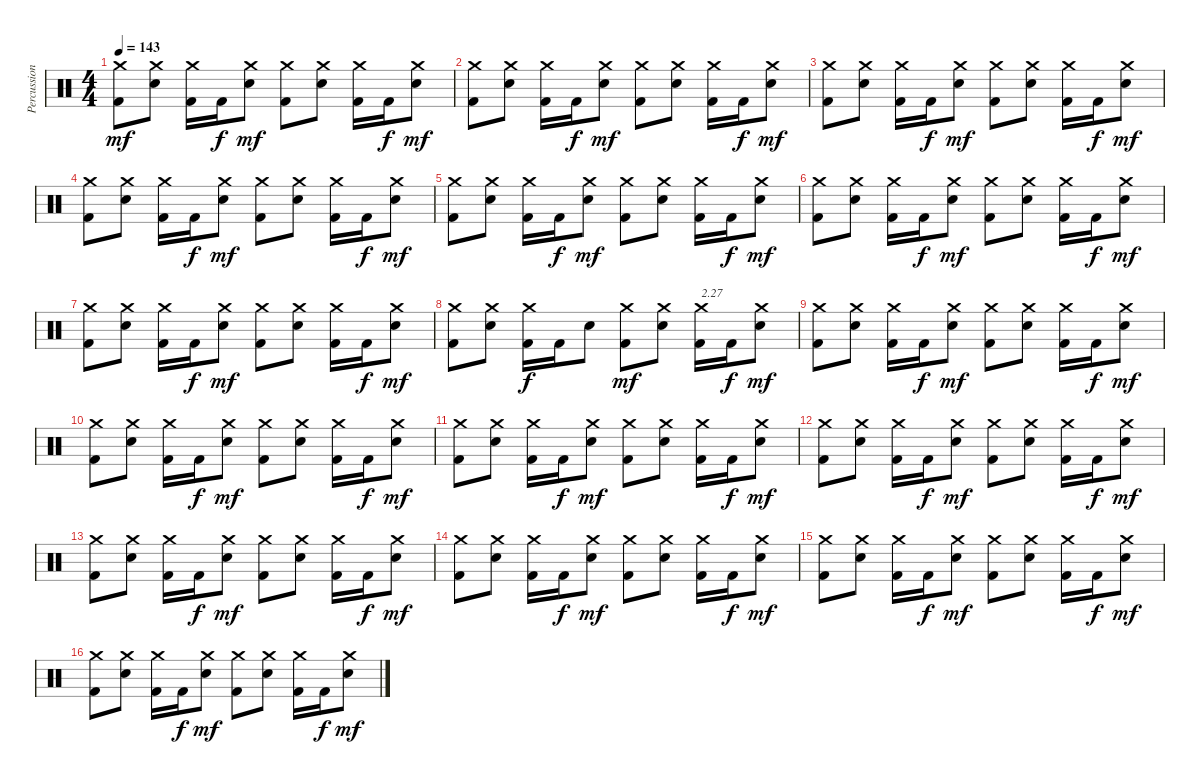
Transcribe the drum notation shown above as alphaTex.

\track ("Percussions" "Percussion") {instrument percussion}
\staff {score}
\articulation defaults
\ts (4 4)
\tempo 143
\clef neutral
\ks c
("Kick (hit) 2" "Crash medium (hit)").8{dy mf} ("Electric Snare (hit)" "Crash medium (hit)").8 ("Kick (hit) 2" "Crash medium (hit)").16 "Kick (hit) 2".16{dy f} ("Electric Snare (hit)" "Crash medium (hit)").8{dy mf} ("Kick (hit) 2" "Crash medium (hit)").8 ("Electric Snare (hit)" "Crash medium (hit)").8 ("Kick (hit) 2" "Crash medium (hit)").16 "Kick (hit) 2".16{dy f} ("Electric Snare (hit)" "Crash medium (hit)").8{dy mf} |
("Kick (hit) 2" "Crash medium (hit)").8 ("Electric Snare (hit)" "Crash medium (hit)").8 ("Kick (hit) 2" "Crash medium (hit)").16 "Kick (hit) 2".16{dy f} ("Electric Snare (hit)" "Crash medium (hit)").8{dy mf} ("Kick (hit) 2" "Crash medium (hit)").8 ("Electric Snare (hit)" "Crash medium (hit)").8 ("Kick (hit) 2" "Crash medium (hit)").16 "Kick (hit) 2".16{dy f} ("Electric Snare (hit)" "Crash medium (hit)").8{dy mf} |
("Kick (hit) 2" "Crash medium (hit)").8 ("Electric Snare (hit)" "Crash medium (hit)").8 ("Kick (hit) 2" "Crash medium (hit)").16 "Kick (hit) 2".16{dy f} ("Electric Snare (hit)" "Crash medium (hit)").8{dy mf} ("Kick (hit) 2" "Crash medium (hit)").8 ("Electric Snare (hit)" "Crash medium (hit)").8 ("Kick (hit) 2" "Crash medium (hit)").16 "Kick (hit) 2".16{dy f} ("Electric Snare (hit)" "Crash medium (hit)").8{dy mf} |
("Kick (hit) 2" "Crash medium (hit)").8 ("Electric Snare (hit)" "Crash medium (hit)").8 ("Kick (hit) 2" "Crash medium (hit)").16 "Kick (hit) 2".16{dy f} ("Electric Snare (hit)" "Crash medium (hit)").8{dy mf} ("Kick (hit) 2" "Crash medium (hit)").8 ("Electric Snare (hit)" "Crash medium (hit)").8 ("Kick (hit) 2" "Crash medium (hit)").16 "Kick (hit) 2".16{dy f} ("Electric Snare (hit)" "Crash medium (hit)").8{dy mf} |
("Kick (hit) 2" "Crash medium (hit)").8 ("Electric Snare (hit)" "Crash medium (hit)").8 ("Kick (hit) 2" "Crash medium (hit)").16 "Kick (hit) 2".16{dy f} ("Electric Snare (hit)" "Crash medium (hit)").8{dy mf} ("Kick (hit) 2" "Crash medium (hit)").8 ("Electric Snare (hit)" "Crash medium (hit)").8 ("Kick (hit) 2" "Crash medium (hit)").16 "Kick (hit) 2".16{dy f} ("Electric Snare (hit)" "Crash medium (hit)").8{dy mf} |
("Kick (hit) 2" "Crash medium (hit)").8 ("Electric Snare (hit)" "Crash medium (hit)").8 ("Kick (hit) 2" "Crash medium (hit)").16 "Kick (hit) 2".16{dy f} ("Electric Snare (hit)" "Crash medium (hit)").8{dy mf} ("Kick (hit) 2" "Crash medium (hit)").8 ("Electric Snare (hit)" "Crash medium (hit)").8 ("Kick (hit) 2" "Crash medium (hit)").16 "Kick (hit) 2".16{dy f} ("Electric Snare (hit)" "Crash medium (hit)").8{dy mf} |
("Kick (hit) 2" "Crash medium (hit)").8 ("Electric Snare (hit)" "Crash medium (hit)").8 ("Kick (hit) 2" "Crash medium (hit)").16 "Kick (hit) 2".16{dy f} ("Electric Snare (hit)" "Crash medium (hit)").8{dy mf} ("Kick (hit) 2" "Crash medium (hit)").8 ("Electric Snare (hit)" "Crash medium (hit)").8 ("Kick (hit) 2" "Crash medium (hit)").16 "Kick (hit) 2".16{dy f} ("Electric Snare (hit)" "Crash medium (hit)").8{dy mf} |
("Kick (hit) 2" "Crash medium (hit)").8 ("Electric Snare (hit)" "Crash medium (hit)").8 ("Kick (hit) 2" "Crash medium (hit)").16{dy f} "Kick (hit) 2".16 "Electric Snare (hit)".8 ("Kick (hit) 2" "Crash medium (hit)").8{dy mf} ("Electric Snare (hit)" "Crash medium (hit)").8 ("Kick (hit) 2" "Crash medium (hit)").16{txt "2.27"} "Kick (hit) 2".16{dy f} ("Electric Snare (hit)" "Crash medium (hit)").8{dy mf} |
("Kick (hit) 2" "Crash medium (hit)").8 ("Electric Snare (hit)" "Crash medium (hit)").8 ("Kick (hit) 2" "Crash medium (hit)").16 "Kick (hit) 2".16{dy f} ("Electric Snare (hit)" "Crash medium (hit)").8{dy mf} ("Kick (hit) 2" "Crash medium (hit)").8 ("Electric Snare (hit)" "Crash medium (hit)").8 ("Kick (hit) 2" "Crash medium (hit)").16 "Kick (hit) 2".16{dy f} ("Electric Snare (hit)" "Crash medium (hit)").8{dy mf} |
("Kick (hit) 2" "Crash medium (hit)").8 ("Electric Snare (hit)" "Crash medium (hit)").8 ("Kick (hit) 2" "Crash medium (hit)").16 "Kick (hit) 2".16{dy f} ("Electric Snare (hit)" "Crash medium (hit)").8{dy mf} ("Kick (hit) 2" "Crash medium (hit)").8 ("Electric Snare (hit)" "Crash medium (hit)").8 ("Kick (hit) 2" "Crash medium (hit)").16 "Kick (hit) 2".16{dy f} ("Electric Snare (hit)" "Crash medium (hit)").8{dy mf} |
("Kick (hit) 2" "Crash medium (hit)").8 ("Electric Snare (hit)" "Crash medium (hit)").8 ("Kick (hit) 2" "Crash medium (hit)").16 "Kick (hit) 2".16{dy f} ("Electric Snare (hit)" "Crash medium (hit)").8{dy mf} ("Kick (hit) 2" "Crash medium (hit)").8 ("Electric Snare (hit)" "Crash medium (hit)").8 ("Kick (hit) 2" "Crash medium (hit)").16 "Kick (hit) 2".16{dy f} ("Electric Snare (hit)" "Crash medium (hit)").8{dy mf} |
("Kick (hit) 2" "Crash medium (hit)").8 ("Electric Snare (hit)" "Crash medium (hit)").8 ("Kick (hit) 2" "Crash medium (hit)").16 "Kick (hit) 2".16{dy f} ("Electric Snare (hit)" "Crash medium (hit)").8{dy mf} ("Kick (hit) 2" "Crash medium (hit)").8 ("Electric Snare (hit)" "Crash medium (hit)").8 ("Kick (hit) 2" "Crash medium (hit)").16 "Kick (hit) 2".16{dy f} ("Electric Snare (hit)" "Crash medium (hit)").8{dy mf} |
("Kick (hit) 2" "Crash medium (hit)").8 ("Electric Snare (hit)" "Crash medium (hit)").8 ("Kick (hit) 2" "Crash medium (hit)").16 "Kick (hit) 2".16{dy f} ("Electric Snare (hit)" "Crash medium (hit)").8{dy mf} ("Kick (hit) 2" "Crash medium (hit)").8 ("Electric Snare (hit)" "Crash medium (hit)").8 ("Kick (hit) 2" "Crash medium (hit)").16 "Kick (hit) 2".16{dy f} ("Electric Snare (hit)" "Crash medium (hit)").8{dy mf} |
("Kick (hit) 2" "Crash medium (hit)").8 ("Electric Snare (hit)" "Crash medium (hit)").8 ("Kick (hit) 2" "Crash medium (hit)").16 "Kick (hit) 2".16{dy f} ("Electric Snare (hit)" "Crash medium (hit)").8{dy mf} ("Kick (hit) 2" "Crash medium (hit)").8 ("Electric Snare (hit)" "Crash medium (hit)").8 ("Kick (hit) 2" "Crash medium (hit)").16 "Kick (hit) 2".16{dy f} ("Electric Snare (hit)" "Crash medium (hit)").8{dy mf} |
("Kick (hit) 2" "Crash medium (hit)").8 ("Electric Snare (hit)" "Crash medium (hit)").8 ("Kick (hit) 2" "Crash medium (hit)").16 "Kick (hit) 2".16{dy f} ("Electric Snare (hit)" "Crash medium (hit)").8{dy mf} ("Kick (hit) 2" "Crash medium (hit)").8 ("Electric Snare (hit)" "Crash medium (hit)").8 ("Kick (hit) 2" "Crash medium (hit)").16 "Kick (hit) 2".16{dy f} ("Electric Snare (hit)" "Crash medium (hit)").8{dy mf} |
("Kick (hit) 2" "Crash medium (hit)").8 ("Electric Snare (hit)" "Crash medium (hit)").8 ("Kick (hit) 2" "Crash medium (hit)").16 "Kick (hit) 2".16{dy f} ("Electric Snare (hit)" "Crash medium (hit)").8{dy mf} ("Kick (hit) 2" "Crash medium (hit)").8 ("Electric Snare (hit)" "Crash medium (hit)").8 ("Kick (hit) 2" "Crash medium (hit)").16 "Kick (hit) 2".16{dy f} ("Electric Snare (hit)" "Crash medium (hit)").8{dy mf}
